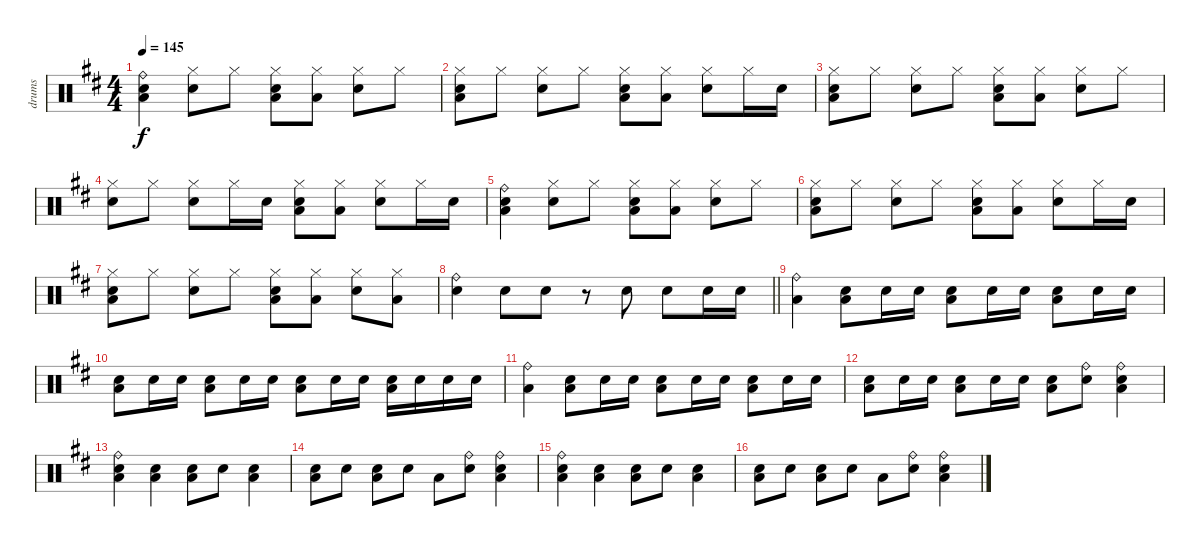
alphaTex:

\track ("drums" "drums") {instrument percussion}
\staff {score}
\articulation defaults
\ts (4 4)
\tempo 145
\clef neutral
\ks d
("Ride (bell)" "Electric Snare (hit)" "Low Floor Tom (hit)").4{dy f} ("Hi-Hat (closed)" "Electric Snare (hit)").8 "Hi-Hat (closed)".8 ("Hi-Hat (closed)" "Electric Snare (hit)" "Low Floor Tom (hit)").8 ("Hi-Hat (closed)" "Low Floor Tom (hit)").8 ("Hi-Hat (closed)" "Electric Snare (hit)").8 "Hi-Hat (closed)".8 |
("Hi-Hat (closed)" "Electric Snare (hit)" "Low Floor Tom (hit)").8 "Hi-Hat (closed)".8 ("Hi-Hat (closed)" "Electric Snare (hit)").8 "Hi-Hat (closed)".8 ("Hi-Hat (closed)" "Electric Snare (hit)" "Low Floor Tom (hit)").8 ("Hi-Hat (closed)" "Low Floor Tom (hit)").8 ("Hi-Hat (closed)" "Electric Snare (hit)").8 "Hi-Hat (closed)".16 "Electric Snare (hit)".16 |
("Hi-Hat (closed)" "Electric Snare (hit)" "Low Floor Tom (hit)").8 "Hi-Hat (closed)".8 ("Hi-Hat (closed)" "Electric Snare (hit)").8 "Hi-Hat (closed)".8 ("Hi-Hat (closed)" "Electric Snare (hit)" "Low Floor Tom (hit)").8 ("Hi-Hat (closed)" "Low Floor Tom (hit)").8 ("Hi-Hat (closed)" "Electric Snare (hit)").8 "Hi-Hat (closed)".8 |
("Hi-Hat (closed)" "Electric Snare (hit)").8 "Hi-Hat (closed)".8 ("Hi-Hat (closed)" "Electric Snare (hit)").8 "Hi-Hat (closed)".16 "Electric Snare (hit)".16 ("Hi-Hat (closed)" "Electric Snare (hit)" "Low Floor Tom (hit)").8 ("Hi-Hat (closed)" "Low Floor Tom (hit)").8 ("Hi-Hat (closed)" "Electric Snare (hit)").8 "Hi-Hat (closed)".16 "Electric Snare (hit)".16 |
("Ride (bell)" "Electric Snare (hit)" "Low Floor Tom (hit)").4 ("Hi-Hat (closed)" "Electric Snare (hit)").8 "Hi-Hat (closed)".8 ("Hi-Hat (closed)" "Electric Snare (hit)" "Low Floor Tom (hit)").8 ("Hi-Hat (closed)" "Low Floor Tom (hit)").8 ("Hi-Hat (closed)" "Electric Snare (hit)").8 "Hi-Hat (closed)".8 |
("Hi-Hat (closed)" "Electric Snare (hit)" "Low Floor Tom (hit)").8 "Hi-Hat (closed)".8 ("Hi-Hat (closed)" "Electric Snare (hit)").8 "Hi-Hat (closed)".8 ("Hi-Hat (closed)" "Electric Snare (hit)" "Low Floor Tom (hit)").8 ("Hi-Hat (closed)" "Low Floor Tom (hit)").8 ("Hi-Hat (closed)" "Electric Snare (hit)").8 "Hi-Hat (closed)".16 "Electric Snare (hit)".16 |
("Hi-Hat (closed)" "Electric Snare (hit)" "Low Floor Tom (hit)").8 "Hi-Hat (closed)".8 ("Hi-Hat (closed)" "Electric Snare (hit)").8 "Hi-Hat (closed)".8 ("Hi-Hat (closed)" "Electric Snare (hit)" "Low Floor Tom (hit)").8 ("Hi-Hat (closed)" "Low Floor Tom (hit)").8 ("Hi-Hat (closed)" "Electric Snare (hit)").8 ("Hi-Hat (closed)" "Low Floor Tom (hit)").8 |
\barLineRight lightlight
("Ride (bell)" "Electric Snare (hit)").4 "Electric Snare (hit)".8 "Electric Snare (hit)".8 r.8 "Electric Snare (hit)".8 "Electric Snare (hit)".8 "Electric Snare (hit)".16 "Electric Snare (hit)".16 |
("Ride (bell)" "Low Floor Tom (hit)").4 ("Electric Snare (hit)" "Low Floor Tom (hit)").8 "Electric Snare (hit)".16 "Electric Snare (hit)".16 ("Electric Snare (hit)" "Low Floor Tom (hit)").8 "Electric Snare (hit)".16 "Electric Snare (hit)".16 ("Electric Snare (hit)" "Low Floor Tom (hit)").8 "Electric Snare (hit)".16 "Electric Snare (hit)".16 |
("Electric Snare (hit)" "Low Floor Tom (hit)").8 "Electric Snare (hit)".16 "Electric Snare (hit)".16 ("Electric Snare (hit)" "Low Floor Tom (hit)").8 "Electric Snare (hit)".16 "Electric Snare (hit)".16 ("Electric Snare (hit)" "Low Floor Tom (hit)").8 "Electric Snare (hit)".16 "Electric Snare (hit)".16 ("Electric Snare (hit)" "Low Floor Tom (hit)").16 "Electric Snare (hit)".16 "Electric Snare (hit)".16 "Electric Snare (hit)".16 |
("Ride (bell)" "Low Floor Tom (hit)").4 ("Electric Snare (hit)" "Low Floor Tom (hit)").8 "Electric Snare (hit)".16 "Electric Snare (hit)".16 ("Electric Snare (hit)" "Low Floor Tom (hit)").8 "Electric Snare (hit)".16 "Electric Snare (hit)".16 ("Electric Snare (hit)" "Low Floor Tom (hit)").8 "Electric Snare (hit)".16 "Electric Snare (hit)".16 |
("Electric Snare (hit)" "Low Floor Tom (hit)").8 "Electric Snare (hit)".16 "Electric Snare (hit)".16 ("Electric Snare (hit)" "Low Floor Tom (hit)").8 "Electric Snare (hit)".16 "Electric Snare (hit)".16 ("Electric Snare (hit)" "Low Floor Tom (hit)").8 ("Ride (bell)" "Electric Snare (hit)").8 ("Ride (bell)" "Electric Snare (hit)" "Low Floor Tom (hit)").4 |
("Ride (bell)" "Electric Snare (hit)" "Low Floor Tom (hit)").4 ("Electric Snare (hit)" "Low Floor Tom (hit)").4 ("Electric Snare (hit)" "Low Floor Tom (hit)").8 "Electric Snare (hit)".8 ("Electric Snare (hit)" "Low Floor Tom (hit)").4 |
("Electric Snare (hit)" "Low Floor Tom (hit)").8 "Electric Snare (hit)".8 ("Electric Snare (hit)" "Low Floor Tom (hit)").8 "Electric Snare (hit)".8 "Low Floor Tom (hit)".8 ("Ride (bell)" "Electric Snare (hit)").8 ("Ride (bell)" "Electric Snare (hit)" "Low Floor Tom (hit)").4 |
("Ride (bell)" "Electric Snare (hit)" "Low Floor Tom (hit)").4 ("Electric Snare (hit)" "Low Floor Tom (hit)").4 ("Electric Snare (hit)" "Low Floor Tom (hit)").8 "Electric Snare (hit)".8 ("Electric Snare (hit)" "Low Floor Tom (hit)").4 |
("Electric Snare (hit)" "Low Floor Tom (hit)").8 "Electric Snare (hit)".8 ("Electric Snare (hit)" "Low Floor Tom (hit)").8 "Electric Snare (hit)".8 "Low Floor Tom (hit)".8 ("Ride (bell)" "Electric Snare (hit)").8 ("Ride (bell)" "Electric Snare (hit)" "Low Floor Tom (hit)").4
